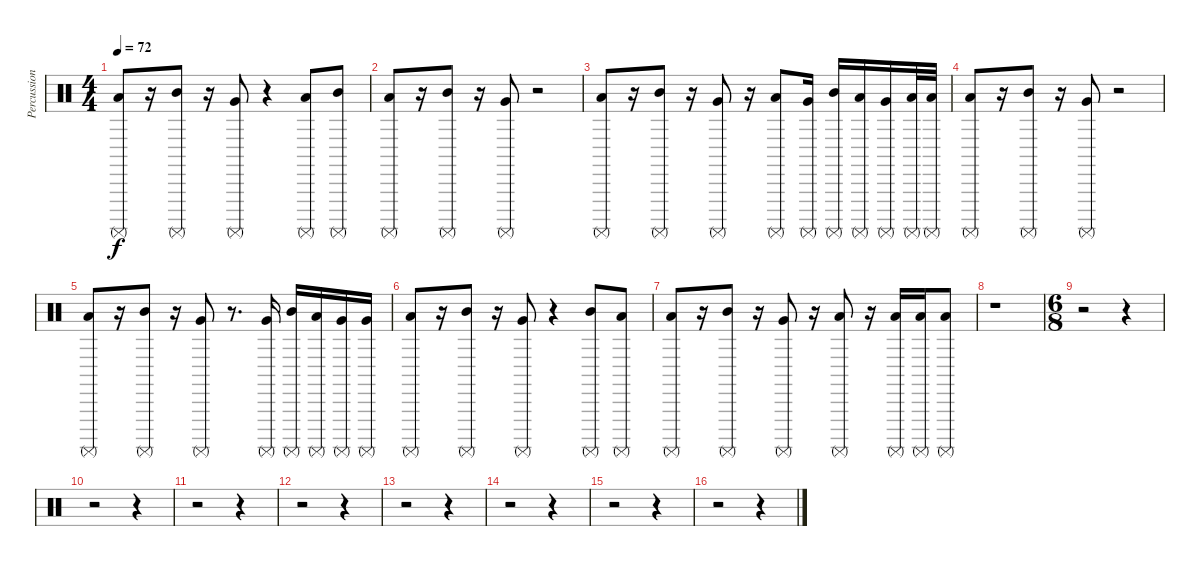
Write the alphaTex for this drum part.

\track ("Percussion" "Percussion") {instrument percussion}
\staff {score}
\articulation defaults
\ts (4 4)
\tempo 72
\clef neutral
\ks c
("Low Tom (hit)" "Surdo (mute)").8{dy f} r.16 ("Mid Tom (hit)" "Surdo (mute)").8 r.16 ("Very Low Tom (hit)" "Surdo (mute)").8 r.4 ("Low Tom (hit)" "Surdo (mute)").8 ("Mid Tom (hit)" "Surdo (mute)").8 |
("Low Tom (hit)" "Surdo (mute)").8 r.16 ("Mid Tom (hit)" "Surdo (mute)").8 r.16 ("Very Low Tom (hit)" "Surdo (mute)").8 r.2 |
("Low Tom (hit)" "Surdo (mute)").8 r.16 ("Mid Tom (hit)" "Surdo (mute)").8 r.16 ("Very Low Tom (hit)" "Surdo (mute)").8 r.16 ("Low Tom (hit)" "Surdo (mute)").8 ("Very Low Tom (hit)" "Surdo (mute)").16 ("Mid Tom (hit)" "Surdo (mute)").16 ("Low Tom (hit)" "Surdo (mute)").16 ("Very Low Tom (hit)" "Surdo (mute)").16 ("Low Tom (hit)" "Surdo (mute)").32 ("Low Tom (hit)" "Surdo (mute)").32 |
("Low Tom (hit)" "Surdo (mute)").8 r.16 ("Mid Tom (hit)" "Surdo (mute)").8 r.16 ("Very Low Tom (hit)" "Surdo (mute)").8 r.2 |
("Low Tom (hit)" "Surdo (mute)").8 r.16 ("Mid Tom (hit)" "Surdo (mute)").8 r.16 ("Very Low Tom (hit)" "Surdo (mute)").8 r.8{d} ("Very Low Tom (hit)" "Surdo (mute)").16 ("Mid Tom (hit)" "Surdo (mute)").16 ("Low Tom (hit)" "Surdo (mute)").16 ("Very Low Tom (hit)" "Surdo (mute)").16 ("Very Low Tom (hit)" "Surdo (mute)").16 |
("Low Tom (hit)" "Surdo (mute)").8 r.16 ("Mid Tom (hit)" "Surdo (mute)").8 r.16 ("Very Low Tom (hit)" "Surdo (mute)").8 r.4 ("Mid Tom (hit)" "Surdo (mute)").8 ("Low Tom (hit)" "Surdo (mute)").8 |
("Low Tom (hit)" "Surdo (mute)").8 r.16 ("Mid Tom (hit)" "Surdo (mute)").8 r.16 ("Very Low Tom (hit)" "Surdo (mute)").8 r.16 ("Low Tom (hit)" "Surdo (mute)").8 r.16 ("Low Tom (hit)" "Surdo (mute)").16 ("Low Tom (hit)" "Surdo (mute)").16 ("Low Tom (hit)" "Surdo (mute)").8 |
r.1 |
\ts (6 8)
r.2 r.4 |
r.2 r.4 |
r.2 r.4 |
r.2 r.4 |
r.2 r.4 |
r.2 r.4 |
r.2 r.4 |
r.2 r.4
